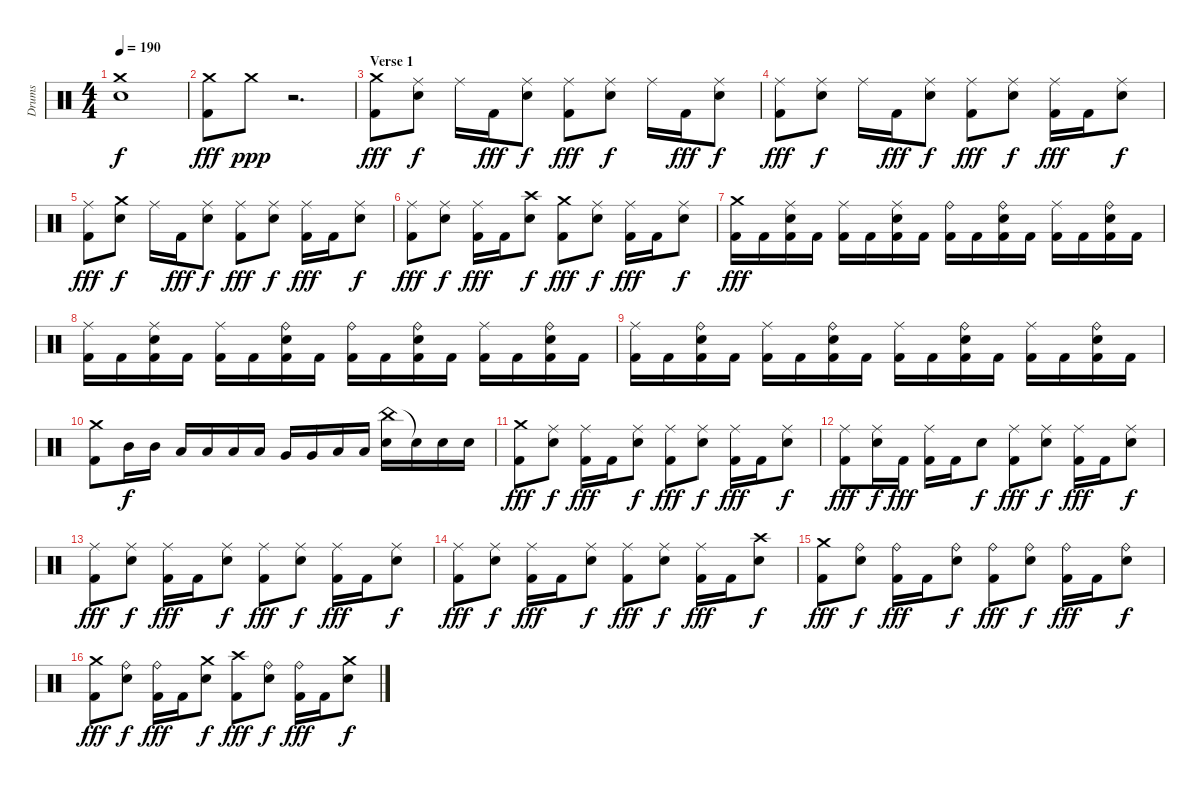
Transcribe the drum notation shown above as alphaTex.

\track ("Drums" "Drums") {instrument percussion}
\staff {score}
\articulation defaults
\ts (4 4)
\tempo 190
\clef neutral
\ks c
("Crash medium (hit)" "Snare (hit) 2").1{dy f} |
("Crash medium (hit)" "Kick (hit) 2").8{dy fff} "Crash medium (hit)".8{dy ppp} r.2{d} |
\section ("" "Verse 1")
("Crash medium (hit)" "Kick (hit) 2").8{dy fff} ("Ride (middle)" "Snare (hit) 2").8{dy f} "Ride (middle)".16 "Kick (hit) 2".16{dy fff} ("Ride (middle)" "Snare (hit) 2").8{dy f} ("Ride (middle)" "Kick (hit) 2").8{dy fff} ("Ride (middle)" "Snare (hit) 2").8{dy f} "Ride (middle)".16 "Kick (hit) 2".16{dy fff} ("Ride (middle)" "Snare (hit) 2").8{dy f} |
("Ride (middle)" "Kick (hit) 2").8{dy fff} ("Ride (middle)" "Snare (hit) 2").8{dy f} "Ride (middle)".16 "Kick (hit) 2".16{dy fff} ("Ride (middle)" "Snare (hit) 2").8{dy f} ("Ride (middle)" "Kick (hit) 2").8{dy fff} ("Ride (middle)" "Snare (hit) 2").8{dy f} ("Ride (middle)" "Kick (hit) 2").16{dy fff} "Kick (hit) 2".16 ("Ride (middle)" "Snare (hit) 2").8{dy f} |
("Ride (middle)" "Kick (hit) 2").8{dy fff} ("Crash medium (hit)" "Snare (hit) 2").8{dy f} "Ride (middle)".16 "Kick (hit) 2".16{dy fff} ("Ride (middle)" "Snare (hit) 2").8{dy f} ("Ride (middle)" "Kick (hit) 2").8{dy fff} ("Ride (middle)" "Snare (hit) 2").8{dy f} ("Ride (middle)" "Kick (hit) 2").16{dy fff} "Kick (hit) 2".16 ("Ride (middle)" "Snare (hit) 2").8{dy f} |
("Ride (middle)" "Kick (hit) 2").8{dy fff} ("Ride (middle)" "Snare (hit) 2").8{dy f} ("Ride (middle)" "Kick (hit) 2").16{dy fff} "Kick (hit) 2".16 ("Crash high (hit)" "Snare (hit) 2").8{dy f} ("Crash medium (hit)" "Kick (hit) 2").8{dy fff} ("Ride (middle)" "Snare (hit) 2").8{dy f} ("Ride (middle)" "Kick (hit) 2").16{dy fff} "Kick (hit) 2".16 ("Ride (middle)" "Snare (hit) 2").8{dy f} |
("Crash medium (hit)" "Kick (hit) 2").16{dy fff} "Kick (hit) 2".16 ("Ride (middle)" "Snare (hit) 2" "Kick (hit) 2").16 "Kick (hit) 2".16 ("Ride (middle)" "Kick (hit) 2").16 "Kick (hit) 2".16 ("Ride (middle)" "Snare (hit) 2" "Kick (hit) 2").16 "Kick (hit) 2".16 ("Ride (bell)" "Kick (hit) 2").16 "Kick (hit) 2".16 ("Ride (bell)" "Snare (hit) 2" "Kick (hit) 2").16 "Kick (hit) 2".16 ("Ride (middle)" "Kick (hit) 2").16 "Kick (hit) 2".16 ("Ride (bell)" "Snare (hit) 2" "Kick (hit) 2").16 "Kick (hit) 2".16 |
("Ride (middle)" "Kick (hit) 2").16 "Kick (hit) 2".16 ("Ride (middle)" "Snare (hit) 2" "Kick (hit) 2").16 "Kick (hit) 2".16 ("Ride (middle)" "Kick (hit) 2").16 "Kick (hit) 2".16 ("Ride (bell)" "Snare (hit) 2" "Kick (hit) 2").16 "Kick (hit) 2".16 ("Ride (bell)" "Kick (hit) 2").16 "Kick (hit) 2".16 ("Ride (bell)" "Snare (hit) 2" "Kick (hit) 2").16 "Kick (hit) 2".16 ("Ride (middle)" "Kick (hit) 2").16 "Kick (hit) 2".16 ("Ride (bell)" "Snare (hit) 2" "Kick (hit) 2").16 "Kick (hit) 2".16 |
("Ride (middle)" "Kick (hit) 2").16 "Kick (hit) 2".16 ("Ride (bell)" "Snare (hit) 2" "Kick (hit) 2").16 "Kick (hit) 2".16 ("Ride (middle)" "Kick (hit) 2").16 "Kick (hit) 2".16 ("Ride (bell)" "Snare (hit) 2" "Kick (hit) 2").16 "Kick (hit) 2".16 ("Ride (middle)" "Kick (hit) 2").16 "Kick (hit) 2".16 ("Ride (bell)" "Snare (hit) 2" "Kick (hit) 2").16 "Kick (hit) 2".16 ("Ride (middle)" "Kick (hit) 2").16 "Kick (hit) 2".16 ("Ride (bell)" "Snare (hit) 2" "Kick (hit) 2").16 "Kick (hit) 2".16 |
("Crash medium (hit)" "Kick (hit) 2").8 "Mid Tom (hit)".16{dy f} "Mid Tom (hit)".16 "Low Tom (hit)".16 "Low Tom (hit)".16 "Low Tom (hit)".16 "Low Tom (hit)".16 "Very Low Tom (hit)".16 "Very Low Tom (hit)".16 "Low Floor Tom (hit)".16 "Low Floor Tom (hit)".16 ("China (hit)" "Snare (hit) 2").16 "Snare (hit)"{t}.16 "Snare (hit) 2".16 "Snare (hit) 2".16 |
("Crash medium (hit)" "Kick (hit) 2").8{dy fff} ("Ride (middle)" "Snare (hit) 2").8{dy f} ("Ride (middle)" "Kick (hit) 2").16{dy fff} "Kick (hit) 2".16 ("Ride (middle)" "Snare (hit) 2").8{dy f} ("Ride (middle)" "Kick (hit) 2").8{dy fff} ("Ride (middle)" "Snare (hit) 2").8{dy f} ("Ride (middle)" "Kick (hit) 2").16{dy fff} "Kick (hit) 2".16 ("Ride (middle)" "Snare (hit) 2").8{dy f} |
("Ride (middle)" "Kick (hit) 2").8{dy fff} ("Ride (middle)" "Snare (hit) 2").16{dy f} "Kick (hit) 2".16{dy fff} ("Ride (middle)" "Kick (hit) 2").16 "Kick (hit) 2".16 "Snare (hit) 2".8{dy f} ("Ride (middle)" "Kick (hit) 2").8{dy fff} ("Ride (middle)" "Snare (hit) 2").8{dy f} ("Ride (middle)" "Kick (hit) 2").16{dy fff} "Kick (hit) 2".16 ("Ride (middle)" "Snare (hit) 2").8{dy f} |
("Ride (middle)" "Kick (hit) 2").8{dy fff} ("Ride (middle)" "Snare (hit) 2").8{dy f} ("Ride (middle)" "Kick (hit) 2").16{dy fff} "Kick (hit) 2".16 ("Ride (middle)" "Snare (hit) 2").8{dy f} ("Ride (middle)" "Kick (hit) 2").8{dy fff} ("Ride (middle)" "Snare (hit) 2").8{dy f} ("Ride (middle)" "Kick (hit) 2").16{dy fff} "Kick (hit) 2".16 ("Ride (middle)" "Snare (hit) 2").8{dy f} |
("Ride (middle)" "Kick (hit) 2").8{dy fff} ("Ride (middle)" "Snare (hit) 2").8{dy f} ("Ride (middle)" "Kick (hit) 2").16{dy fff} "Kick (hit) 2".16 ("Ride (middle)" "Snare (hit) 2").8{dy f} ("Ride (middle)" "Kick (hit) 2").8{dy fff} ("Ride (middle)" "Snare (hit) 2").8{dy f} ("Ride (middle)" "Kick (hit) 2").16{dy fff} "Kick (hit) 2".16 ("Crash high (hit)" "Snare (hit) 2").8{dy f} |
("Crash medium (hit)" "Kick (hit) 2").8{dy fff} ("Ride (bell)" "Snare (hit) 2").8{dy f} ("Ride (bell)" "Kick (hit) 2").16{dy fff} "Kick (hit) 2".16 ("Ride (bell)" "Snare (hit) 2").8{dy f} ("Ride (bell)" "Kick (hit) 2").8{dy fff} ("Ride (bell)" "Snare (hit) 2").8{dy f} ("Ride (bell)" "Kick (hit) 2").16{dy fff} "Kick (hit) 2".16 ("Ride (bell)" "Snare (hit) 2").8{dy f} |
("Crash medium (hit)" "Kick (hit) 2").8{dy fff} ("Ride (bell)" "Snare (hit) 2").8{dy f} ("Ride (bell)" "Kick (hit) 2").16{dy fff} "Kick (hit) 2".16 ("Crash medium (hit)" "Snare (hit) 2").8{dy f} ("Crash high (hit)" "Kick (hit) 2").8{dy fff} ("Ride (bell)" "Snare (hit) 2").8{dy f} ("Ride (bell)" "Kick (hit) 2").16{dy fff} "Kick (hit) 2".16 ("Crash medium (hit)" "Snare (hit) 2").8{dy f}
